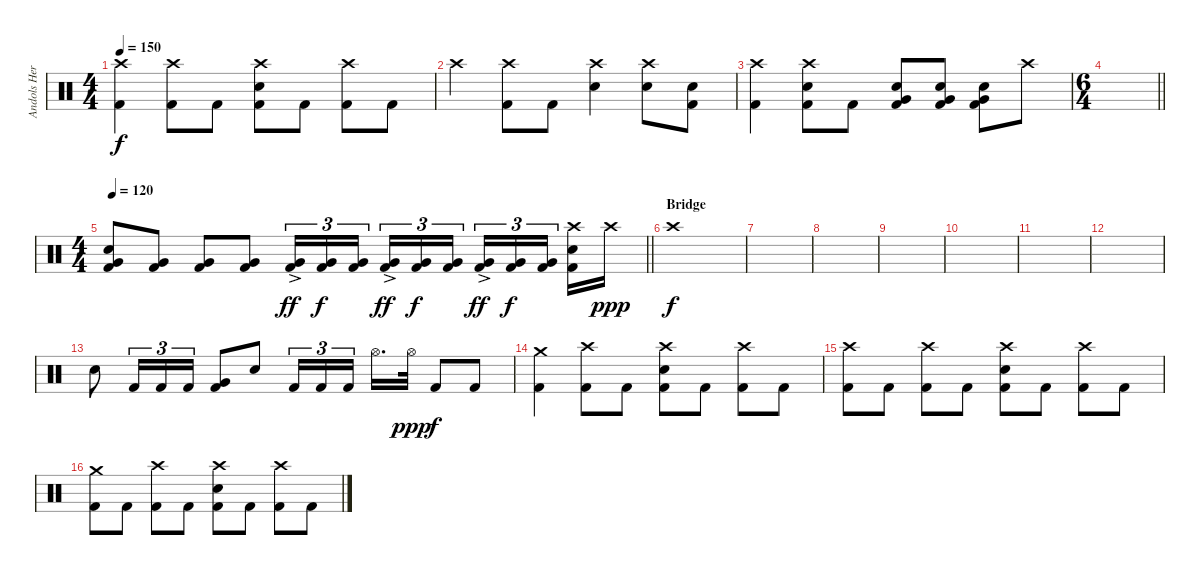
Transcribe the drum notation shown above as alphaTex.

\track ("Andols Herrick" "Andols Her") {instrument percussion}
\staff {score}
\articulation defaults
\ts (4 4)
\tempo 150
\clef neutral
\ks c
("Crash high (hit)" "Kick (hit) 2").4{dy f} ("Crash high (hit)" "Kick (hit) 2").8 "Kick (hit) 2".8 ("Crash high (hit)" "Electric Snare (hit)" "Kick (hit) 2").8 "Kick (hit) 2".8 ("Crash high (hit)" "Kick (hit) 2").8 "Kick (hit) 2".8 |
"Crash high (hit)".4 ("Crash high (hit)" "Kick (hit) 2").8 "Kick (hit) 2".8 ("Crash high (hit)" "Electric Snare (hit)").4 ("Crash high (hit)" "Electric Snare (hit)").8 ("Electric Snare (hit)" "Kick (hit) 2").8 |
("Crash high (hit)" "Kick (hit) 2").4 ("Crash high (hit)" "Electric Snare (hit)" "Kick (hit) 2").8 "Kick (hit) 2".8 ("Electric Snare (hit)" "Very Low Tom (hit)" "Kick (hit) 2").8 ("Electric Snare (hit)" "Very Low Tom (hit)" "Kick (hit) 2").8 ("Electric Snare (hit)" "Very Low Tom (hit)" "Kick (hit) 2").8 "Crash high (hit)".8 |
\ts (6 4)
\barLineRight lightlight
|
\ts (4 4)
\tempo 120
\barLineRight lightlight
("Electric Snare (hit)" "Very Low Tom (hit)" "Kick (hit) 2").8 ("Very Low Tom (hit)" "Kick (hit) 2").8 ("Very Low Tom (hit)" "Kick (hit) 2").8 ("Very Low Tom (hit)" "Kick (hit) 2").8 ("Very Low Tom (hit)"{ac} "Kick (hit) 2"{ac}).16{tu (3 2) dy ff} ("Very Low Tom (hit)" "Kick (hit) 2").16{tu (3 2) dy f} ("Very Low Tom (hit)" "Kick (hit) 2").16{tu (3 2) beam splitsecondary} ("Very Low Tom (hit)"{ac} "Kick (hit) 2"{ac}).16{tu (3 2) dy ff} ("Very Low Tom (hit)" "Kick (hit) 2").16{tu (3 2) dy f} ("Very Low Tom (hit)" "Kick (hit) 2").16{tu (3 2)} ("Very Low Tom (hit)"{ac} "Kick (hit) 2"{ac}).16{tu (3 2) dy ff} ("Very Low Tom (hit)" "Kick (hit) 2").16{tu (3 2) dy f} ("Very Low Tom (hit)" "Kick (hit) 2").16{tu (3 2) beam splitsecondary} ("Crash high (hit)" "Electric Snare (hit)" "Kick (hit) 2").16 "Crash high (hit)".16{dy ppp} |
\section ("" "Bridge")
"Crash high (hit)".1{dy f} |
|
|
|
|
|
|
"Electric Snare (hit)".8 "Kick (hit) 2".16{tu (3 2)} "Kick (hit) 2".16{tu (3 2)} "Kick (hit) 2".16{tu (3 2)} ("Very Low Tom (hit)" "Kick (hit) 2").8 "Electric Snare (hit)".8 "Kick (hit) 2".16{tu (3 2)} "Kick (hit) 2".16{tu (3 2)} "Kick (hit) 2".16{tu (3 2) beam splitsecondary} "Hi-Hat (open)".16{d} "Hi-Hat (open)".32{dy ppp} "Kick (hit) 2".8{dy f} "Kick (hit) 2".8 |
("Crash medium (hit)" "Kick (hit) 2").4 ("Crash high (hit)" "Kick (hit) 2").8 "Kick (hit) 2".8 ("Crash high (hit)" "Electric Snare (hit)" "Kick (hit) 2").8 "Kick (hit) 2".8 ("Crash high (hit)" "Kick (hit) 2").8 "Kick (hit) 2".8 |
("Crash high (hit)" "Kick (hit) 2").8 "Kick (hit) 2".8 ("Crash high (hit)" "Kick (hit) 2").8 "Kick (hit) 2".8 ("Crash high (hit)" "Electric Snare (hit)" "Kick (hit) 2").8 "Kick (hit) 2".8 ("Crash high (hit)" "Kick (hit) 2").8 "Kick (hit) 2".8 |
("Crash medium (hit)" "Kick (hit) 2").8 "Kick (hit) 2".8 ("Crash high (hit)" "Kick (hit) 2").8 "Kick (hit) 2".8 ("Crash high (hit)" "Electric Snare (hit)" "Kick (hit) 2").8 "Kick (hit) 2".8 ("Crash high (hit)" "Kick (hit) 2").8 "Kick (hit) 2".8
